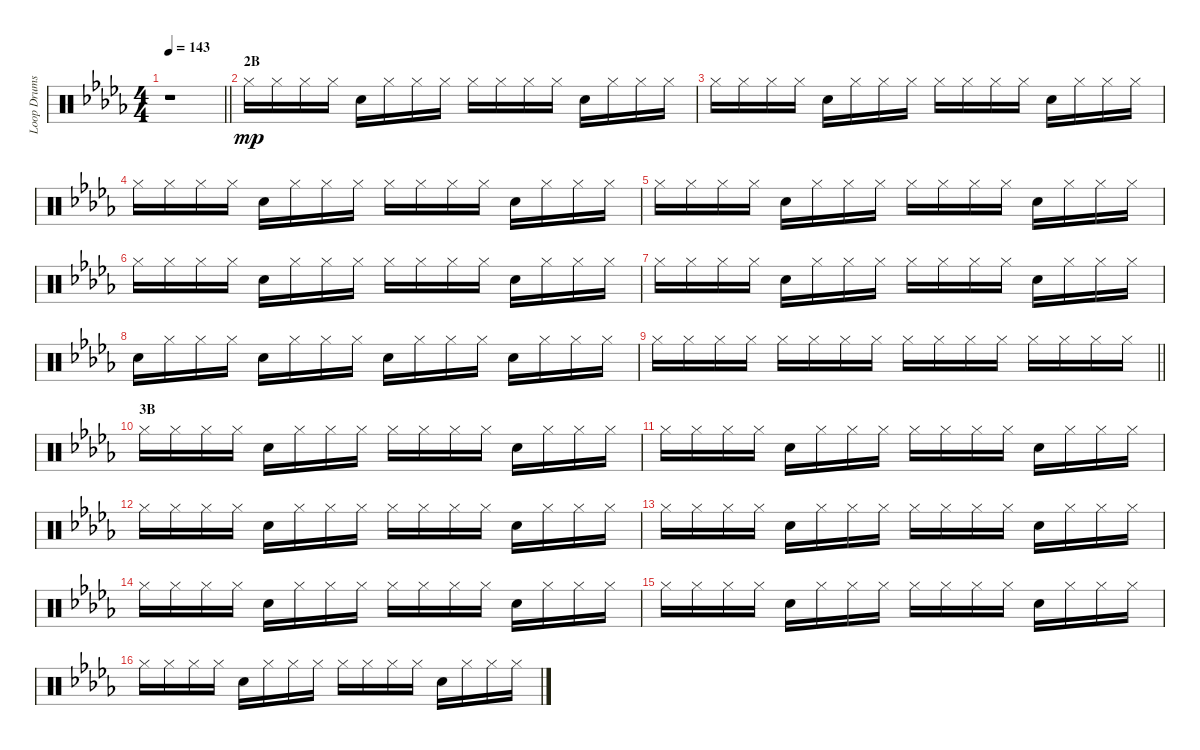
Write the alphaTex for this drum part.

\track ("Loop Drums" "Loop Drums") {instrument percussion}
\staff {score}
\articulation defaults
\ts (4 4)
\tempo 143
\clef neutral
\barLineRight lightlight
\ks db
r.1{dy mp} |
\section ("" "2B")
"Hi-Hat (closed)".16 "Hi-Hat (closed)".16 "Hi-Hat (closed)".16 "Hi-Hat (closed)".16 "Electric Snare (hit)".16 "Hi-Hat (closed)".16 "Hi-Hat (closed)".16 "Hi-Hat (closed)".16 "Hi-Hat (closed)".16 "Hi-Hat (closed)".16 "Hi-Hat (closed)".16 "Hi-Hat (closed)".16 "Electric Snare (hit)".16 "Hi-Hat (closed)".16 "Hi-Hat (closed)".16 "Hi-Hat (closed)".16 |
"Hi-Hat (closed)".16 "Hi-Hat (closed)".16 "Hi-Hat (closed)".16 "Hi-Hat (closed)".16 "Electric Snare (hit)".16 "Hi-Hat (closed)".16 "Hi-Hat (closed)".16 "Hi-Hat (closed)".16 "Hi-Hat (closed)".16 "Hi-Hat (closed)".16 "Hi-Hat (closed)".16 "Hi-Hat (closed)".16 "Electric Snare (hit)".16 "Hi-Hat (closed)".16 "Hi-Hat (closed)".16 "Hi-Hat (closed)".16 |
"Hi-Hat (closed)".16 "Hi-Hat (closed)".16 "Hi-Hat (closed)".16 "Hi-Hat (closed)".16 "Electric Snare (hit)".16 "Hi-Hat (closed)".16 "Hi-Hat (closed)".16 "Hi-Hat (closed)".16 "Hi-Hat (closed)".16 "Hi-Hat (closed)".16 "Hi-Hat (closed)".16 "Hi-Hat (closed)".16 "Electric Snare (hit)".16 "Hi-Hat (closed)".16 "Hi-Hat (closed)".16 "Hi-Hat (closed)".16 |
"Hi-Hat (closed)".16 "Hi-Hat (closed)".16 "Hi-Hat (closed)".16 "Hi-Hat (closed)".16 "Electric Snare (hit)".16 "Hi-Hat (closed)".16 "Hi-Hat (closed)".16 "Hi-Hat (closed)".16 "Hi-Hat (closed)".16 "Hi-Hat (closed)".16 "Hi-Hat (closed)".16 "Hi-Hat (closed)".16 "Electric Snare (hit)".16 "Hi-Hat (closed)".16 "Hi-Hat (closed)".16 "Hi-Hat (closed)".16 |
"Hi-Hat (closed)".16 "Hi-Hat (closed)".16 "Hi-Hat (closed)".16 "Hi-Hat (closed)".16 "Electric Snare (hit)".16 "Hi-Hat (closed)".16 "Hi-Hat (closed)".16 "Hi-Hat (closed)".16 "Hi-Hat (closed)".16 "Hi-Hat (closed)".16 "Hi-Hat (closed)".16 "Hi-Hat (closed)".16 "Electric Snare (hit)".16 "Hi-Hat (closed)".16 "Hi-Hat (closed)".16 "Hi-Hat (closed)".16 |
"Hi-Hat (closed)".16 "Hi-Hat (closed)".16 "Hi-Hat (closed)".16 "Hi-Hat (closed)".16 "Electric Snare (hit)".16 "Hi-Hat (closed)".16 "Hi-Hat (closed)".16 "Hi-Hat (closed)".16 "Hi-Hat (closed)".16 "Hi-Hat (closed)".16 "Hi-Hat (closed)".16 "Hi-Hat (closed)".16 "Electric Snare (hit)".16 "Hi-Hat (closed)".16 "Hi-Hat (closed)".16 "Hi-Hat (closed)".16 |
"Electric Snare (hit)".16 "Hi-Hat (closed)".16 "Hi-Hat (closed)".16 "Hi-Hat (closed)".16 "Electric Snare (hit)".16 "Hi-Hat (closed)".16 "Hi-Hat (closed)".16 "Hi-Hat (closed)".16 "Electric Snare (hit)".16 "Hi-Hat (closed)".16 "Hi-Hat (closed)".16 "Hi-Hat (closed)".16 "Electric Snare (hit)".16 "Hi-Hat (closed)".16 "Hi-Hat (closed)".16 "Hi-Hat (closed)".16 |
\barLineRight lightlight "Hi-Hat (closed)".16 "Hi-Hat (closed)".16 "Hi-Hat (closed)".16 "Hi-Hat (closed)".16 "Hi-Hat (closed)".16 "Hi-Hat (closed)".16 "Hi-Hat (closed)".16 "Hi-Hat (closed)".16 "Hi-Hat (closed)".16 "Hi-Hat (closed)".16 "Hi-Hat (closed)".16 "Hi-Hat (closed)".16 "Hi-Hat (closed)".16 "Hi-Hat (closed)".16 "Hi-Hat (closed)".16 "Hi-Hat (closed)".16
|
\section ("" "3B")
"Hi-Hat (closed)".16 "Hi-Hat (closed)".16 "Hi-Hat (closed)".16 "Hi-Hat (closed)".16 "Electric Snare (hit)".16 "Hi-Hat (closed)".16 "Hi-Hat (closed)".16 "Hi-Hat (closed)".16 "Hi-Hat (closed)".16 "Hi-Hat (closed)".16 "Hi-Hat (closed)".16 "Hi-Hat (closed)".16 "Electric Snare (hit)".16 "Hi-Hat (closed)".16 "Hi-Hat (closed)".16 "Hi-Hat (closed)".16 |
"Hi-Hat (closed)".16 "Hi-Hat (closed)".16 "Hi-Hat (closed)".16 "Hi-Hat (closed)".16 "Electric Snare (hit)".16 "Hi-Hat (closed)".16 "Hi-Hat (closed)".16 "Hi-Hat (closed)".16 "Hi-Hat (closed)".16 "Hi-Hat (closed)".16 "Hi-Hat (closed)".16 "Hi-Hat (closed)".16 "Electric Snare (hit)".16 "Hi-Hat (closed)".16 "Hi-Hat (closed)".16 "Hi-Hat (closed)".16 |
"Hi-Hat (closed)".16 "Hi-Hat (closed)".16 "Hi-Hat (closed)".16 "Hi-Hat (closed)".16 "Electric Snare (hit)".16 "Hi-Hat (closed)".16 "Hi-Hat (closed)".16 "Hi-Hat (closed)".16 "Hi-Hat (closed)".16 "Hi-Hat (closed)".16 "Hi-Hat (closed)".16 "Hi-Hat (closed)".16 "Electric Snare (hit)".16 "Hi-Hat (closed)".16 "Hi-Hat (closed)".16 "Hi-Hat (closed)".16 |
"Hi-Hat (closed)".16 "Hi-Hat (closed)".16 "Hi-Hat (closed)".16 "Hi-Hat (closed)".16 "Electric Snare (hit)".16 "Hi-Hat (closed)".16 "Hi-Hat (closed)".16 "Hi-Hat (closed)".16 "Hi-Hat (closed)".16 "Hi-Hat (closed)".16 "Hi-Hat (closed)".16 "Hi-Hat (closed)".16 "Electric Snare (hit)".16 "Hi-Hat (closed)".16 "Hi-Hat (closed)".16 "Hi-Hat (closed)".16 |
"Hi-Hat (closed)".16 "Hi-Hat (closed)".16 "Hi-Hat (closed)".16 "Hi-Hat (closed)".16 "Electric Snare (hit)".16 "Hi-Hat (closed)".16 "Hi-Hat (closed)".16 "Hi-Hat (closed)".16 "Hi-Hat (closed)".16 "Hi-Hat (closed)".16 "Hi-Hat (closed)".16 "Hi-Hat (closed)".16 "Electric Snare (hit)".16 "Hi-Hat (closed)".16 "Hi-Hat (closed)".16 "Hi-Hat (closed)".16 |
"Hi-Hat (closed)".16 "Hi-Hat (closed)".16 "Hi-Hat (closed)".16 "Hi-Hat (closed)".16 "Electric Snare (hit)".16 "Hi-Hat (closed)".16 "Hi-Hat (closed)".16 "Hi-Hat (closed)".16 "Hi-Hat (closed)".16 "Hi-Hat (closed)".16 "Hi-Hat (closed)".16 "Hi-Hat (closed)".16 "Electric Snare (hit)".16 "Hi-Hat (closed)".16 "Hi-Hat (closed)".16 "Hi-Hat (closed)".16 |
"Hi-Hat (closed)".16 "Hi-Hat (closed)".16 "Hi-Hat (closed)".16 "Hi-Hat (closed)".16 "Electric Snare (hit)".16 "Hi-Hat (closed)".16 "Hi-Hat (closed)".16 "Hi-Hat (closed)".16 "Hi-Hat (closed)".16 "Hi-Hat (closed)".16 "Hi-Hat (closed)".16 "Hi-Hat (closed)".16 "Electric Snare (hit)".16 "Hi-Hat (closed)".16 "Hi-Hat (closed)".16 "Hi-Hat (closed)".16
